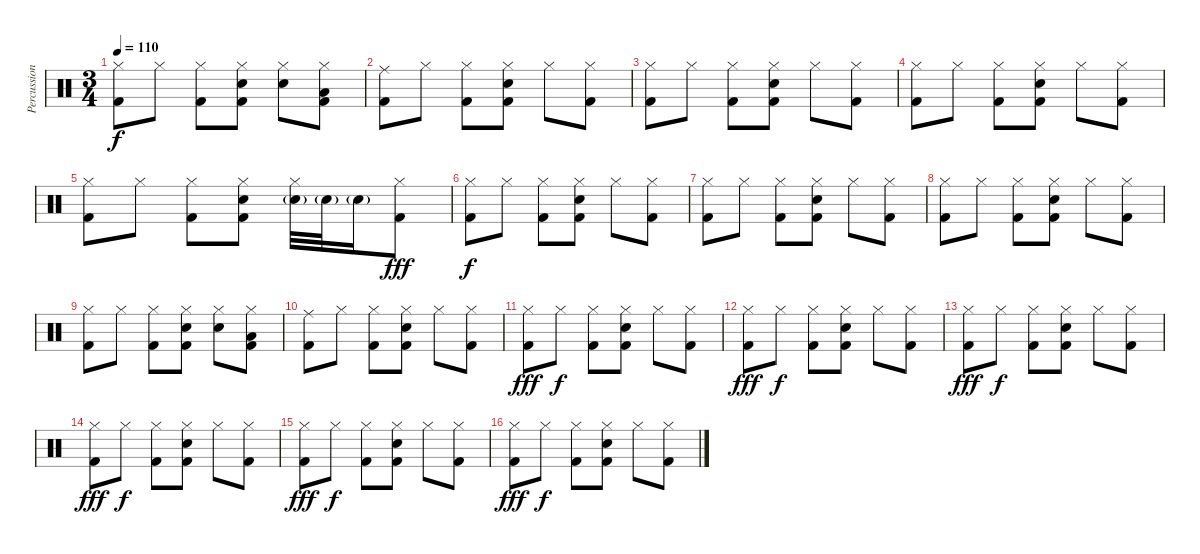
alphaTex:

\track ("Percussion" "Percussion") {instrument percussion}
\staff {score}
\articulation defaults
\ts (3 4)
\tempo 110
\clef neutral
\ks c
("Hi-Hat (closed)" "Kick (hit) 2").8{dy f} "Hi-Hat (closed)".8 ("Hi-Hat (closed)" "Kick (hit) 2").8 ("Hi-Hat (closed)" "Electric Snare (hit)" "Kick (hit) 2").8 ("Hi-Hat (closed)" "Electric Snare (hit)").8 ("Hi-Hat (closed)" "Low Tom (hit)" "Kick (hit) 2").8 |
("Ride (middle)" "Kick (hit) 2").8 "Hi-Hat (closed)".8 ("Hi-Hat (closed)" "Kick (hit) 2").8 ("Hi-Hat (closed)" "Electric Snare (hit)" "Kick (hit) 2").8 "Hi-Hat (closed)".8 ("Hi-Hat (closed)" "Kick (hit) 2").8 |
("Hi-Hat (closed)" "Kick (hit) 2").8 "Hi-Hat (closed)".8 ("Hi-Hat (closed)" "Kick (hit) 2").8 ("Hi-Hat (closed)" "Electric Snare (hit)" "Kick (hit) 2").8 "Hi-Hat (closed)".8 ("Hi-Hat (closed)" "Kick (hit) 2").8 |
("Hi-Hat (closed)" "Kick (hit) 2").8 "Hi-Hat (closed)".8 ("Hi-Hat (closed)" "Kick (hit) 2").8 ("Hi-Hat (closed)" "Electric Snare (hit)" "Kick (hit) 2").8 "Hi-Hat (closed)".8 ("Hi-Hat (closed)" "Kick (hit) 2").8 |
("Hi-Hat (closed)" "Kick (hit) 2").8 "Hi-Hat (closed)".8 ("Hi-Hat (closed)" "Kick (hit) 2").8 ("Hi-Hat (closed)" "Electric Snare (hit)" "Kick (hit) 2").8 ("Hi-Hat (closed)" "Electric Snare (hit)"{g}).32 "Electric Snare (hit)"{g}.32 "Electric Snare (hit)"{g}.16 ("Hi-Hat (closed)" "Kick (hit) 2").8{dy fff} |
("Hi-Hat (closed)" "Kick (hit) 2").8{dy f} "Hi-Hat (closed)".8 ("Hi-Hat (closed)" "Kick (hit) 2").8 ("Hi-Hat (closed)" "Electric Snare (hit)" "Kick (hit) 2").8 "Hi-Hat (closed)".8 ("Hi-Hat (closed)" "Kick (hit) 2").8 |
("Hi-Hat (closed)" "Kick (hit) 2").8 "Hi-Hat (closed)".8 ("Hi-Hat (closed)" "Kick (hit) 2").8 ("Hi-Hat (closed)" "Electric Snare (hit)" "Kick (hit) 2").8 "Hi-Hat (closed)".8 ("Hi-Hat (closed)" "Kick (hit) 2").8 |
("Hi-Hat (closed)" "Kick (hit) 2").8 "Hi-Hat (closed)".8 ("Hi-Hat (closed)" "Kick (hit) 2").8 ("Hi-Hat (closed)" "Electric Snare (hit)" "Kick (hit) 2").8 "Hi-Hat (closed)".8 ("Hi-Hat (closed)" "Kick (hit) 2").8 |
("Hi-Hat (closed)" "Kick (hit) 2").8 "Hi-Hat (closed)".8 ("Hi-Hat (closed)" "Kick (hit) 2").8 ("Hi-Hat (closed)" "Electric Snare (hit)" "Kick (hit) 2").8 ("Hi-Hat (closed)" "Electric Snare (hit)").8 ("Hi-Hat (closed)" "Low Tom (hit)" "Kick (hit) 2").8 |
("Ride (middle)" "Kick (hit) 2").8 "Hi-Hat (closed)".8 ("Hi-Hat (closed)" "Kick (hit) 2").8 ("Hi-Hat (closed)" "Electric Snare (hit)" "Kick (hit) 2").8 "Hi-Hat (closed)".8 ("Hi-Hat (closed)" "Kick (hit) 2").8 |
("Hi-Hat (closed)" "Kick (hit) 2").8{dy fff} "Hi-Hat (closed)".8{dy f} ("Hi-Hat (closed)" "Kick (hit) 2").8 ("Hi-Hat (closed)" "Electric Snare (hit)" "Kick (hit) 2").8 "Hi-Hat (closed)".8 ("Hi-Hat (closed)" "Kick (hit) 2").8 |
("Hi-Hat (closed)" "Kick (hit) 2").8{dy fff} "Hi-Hat (closed)".8{dy f} ("Hi-Hat (closed)" "Kick (hit) 2").8 ("Hi-Hat (closed)" "Electric Snare (hit)" "Kick (hit) 2").8 "Hi-Hat (closed)".8 ("Hi-Hat (closed)" "Kick (hit) 2").8 |
("Hi-Hat (closed)" "Kick (hit) 2").8{dy fff} "Hi-Hat (closed)".8{dy f} ("Hi-Hat (closed)" "Kick (hit) 2").8 ("Hi-Hat (closed)" "Electric Snare (hit)" "Kick (hit) 2").8 "Hi-Hat (closed)".8 ("Hi-Hat (closed)" "Kick (hit) 2").8 |
("Hi-Hat (closed)" "Kick (hit) 2").8{dy fff} "Hi-Hat (closed)".8{dy f} ("Hi-Hat (closed)" "Kick (hit) 2").8 ("Hi-Hat (closed)" "Electric Snare (hit)" "Kick (hit) 2").8 "Hi-Hat (closed)".8 ("Hi-Hat (closed)" "Kick (hit) 2").8 |
("Hi-Hat (closed)" "Kick (hit) 2").8{dy fff} "Hi-Hat (closed)".8{dy f} ("Hi-Hat (closed)" "Kick (hit) 2").8 ("Hi-Hat (closed)" "Electric Snare (hit)" "Kick (hit) 2").8 "Hi-Hat (closed)".8 ("Hi-Hat (closed)" "Kick (hit) 2").8 |
("Hi-Hat (closed)" "Kick (hit) 2").8{dy fff} "Hi-Hat (closed)".8{dy f} ("Hi-Hat (closed)" "Kick (hit) 2").8 ("Hi-Hat (closed)" "Electric Snare (hit)" "Kick (hit) 2").8 "Hi-Hat (closed)".8 ("Hi-Hat (closed)" "Kick (hit) 2").8
